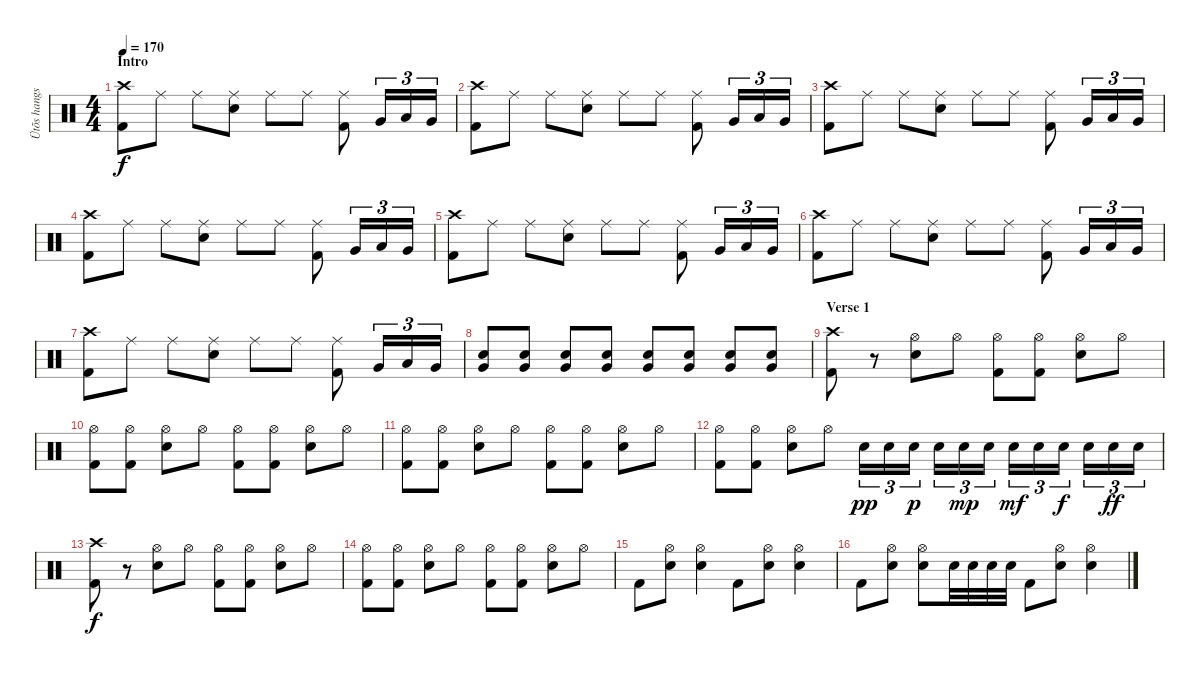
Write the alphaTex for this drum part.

\track ("Ütõs hangszer" "Ütõs hangs") {instrument percussion}
\staff {score}
\articulation defaults
\ts (4 4)
\section ("" "Intro")
\tempo 170
\clef neutral
\ks c
("Crash high (hit)" "Kick (hit) 2").8{dy f} "Ride (middle)".8 "Ride (middle)".8 ("Ride (middle)" "Electric Snare (hit)").8 "Ride (middle)".8 "Ride (middle)".8 ("Ride (middle)" "Kick (hit) 2").8 "Very Low Tom (hit)".16{tu (3 2)} "Low Tom (hit)".16{tu (3 2)} "Very Low Tom (hit)".16{tu (3 2)} |
("Crash high (hit)" "Kick (hit) 2").8 "Ride (middle)".8 "Ride (middle)".8 ("Ride (middle)" "Electric Snare (hit)").8 "Ride (middle)".8 "Ride (middle)".8 ("Ride (middle)" "Kick (hit) 2").8 "Very Low Tom (hit)".16{tu (3 2)} "Low Tom (hit)".16{tu (3 2)} "Very Low Tom (hit)".16{tu (3 2)} |
("Crash high (hit)" "Kick (hit) 2").8 "Ride (middle)".8 "Ride (middle)".8 ("Ride (middle)" "Electric Snare (hit)").8 "Ride (middle)".8 "Ride (middle)".8 ("Ride (middle)" "Kick (hit) 2").8 "Very Low Tom (hit)".16{tu (3 2)} "Low Tom (hit)".16{tu (3 2)} "Very Low Tom (hit)".16{tu (3 2)} |
("Crash high (hit)" "Kick (hit) 2").8 "Ride (middle)".8 "Ride (middle)".8 ("Ride (middle)" "Electric Snare (hit)").8 "Ride (middle)".8 "Ride (middle)".8 ("Ride (middle)" "Kick (hit) 2").8 "Very Low Tom (hit)".16{tu (3 2)} "Low Tom (hit)".16{tu (3 2)} "Very Low Tom (hit)".16{tu (3 2)} |
("Crash high (hit)" "Kick (hit) 2").8 "Ride (middle)".8 "Ride (middle)".8 ("Ride (middle)" "Electric Snare (hit)").8 "Ride (middle)".8 "Ride (middle)".8 ("Ride (middle)" "Kick (hit) 2").8 "Very Low Tom (hit)".16{tu (3 2)} "Low Tom (hit)".16{tu (3 2)} "Very Low Tom (hit)".16{tu (3 2)} |
("Crash high (hit)" "Kick (hit) 2").8 "Ride (middle)".8 "Ride (middle)".8 ("Ride (middle)" "Electric Snare (hit)").8 "Ride (middle)".8 "Ride (middle)".8 ("Ride (middle)" "Kick (hit) 2").8 "Very Low Tom (hit)".16{tu (3 2)} "Low Tom (hit)".16{tu (3 2)} "Very Low Tom (hit)".16{tu (3 2)} |
("Crash high (hit)" "Kick (hit) 2").8 "Ride (middle)".8 "Ride (middle)".8 ("Ride (middle)" "Electric Snare (hit)").8 "Ride (middle)".8 "Ride (middle)".8 ("Ride (middle)" "Kick (hit) 2").8 "Very Low Tom (hit)".16{tu (3 2)} "Low Tom (hit)".16{tu (3 2)} "Very Low Tom (hit)".16{tu (3 2)} |
("Very Low Tom (hit)" "Electric Snare (hit)").8 ("Very Low Tom (hit)" "Electric Snare (hit)").8 ("Very Low Tom (hit)" "Electric Snare (hit)").8 ("Very Low Tom (hit)" "Electric Snare (hit)").8 ("Very Low Tom (hit)" "Electric Snare (hit)").8 ("Very Low Tom (hit)" "Electric Snare (hit)").8 ("Very Low Tom (hit)" "Electric Snare (hit)").8 ("Very Low Tom (hit)" "Electric Snare (hit)").8 |
\section ("" "Verse 1")
("Crash high (hit)" "Kick (hit) 2").8 r.8 ("Hi-Hat (open)" "Electric Snare (hit)").8 "Hi-Hat (open)".8 ("Hi-Hat (open)" "Kick (hit) 2").8 ("Hi-Hat (open)" "Kick (hit) 2").8 ("Hi-Hat (open)" "Electric Snare (hit)").8 "Hi-Hat (open)".8 |
("Hi-Hat (open)" "Kick (hit) 2").8 ("Hi-Hat (open)" "Kick (hit) 2").8 ("Hi-Hat (open)" "Electric Snare (hit)").8 "Hi-Hat (open)".8 ("Hi-Hat (open)" "Kick (hit) 2").8 ("Hi-Hat (open)" "Kick (hit) 2").8 ("Hi-Hat (open)" "Electric Snare (hit)").8 "Hi-Hat (open)".8 |
("Hi-Hat (open)" "Kick (hit) 2").8 ("Hi-Hat (open)" "Kick (hit) 2").8 ("Hi-Hat (open)" "Electric Snare (hit)").8 "Hi-Hat (open)".8 ("Hi-Hat (open)" "Kick (hit) 2").8 ("Hi-Hat (open)" "Kick (hit) 2").8 ("Hi-Hat (open)" "Electric Snare (hit)").8 "Hi-Hat (open)".8 |
("Hi-Hat (open)" "Kick (hit) 2").8 ("Hi-Hat (open)" "Kick (hit) 2").8 ("Hi-Hat (open)" "Electric Snare (hit)").8 "Hi-Hat (open)".8 "Electric Snare (hit)".16{tu (3 2) dy pp} "Electric Snare (hit)".16{tu (3 2)} "Electric Snare (hit)".16{tu (3 2) dy p} "Electric Snare (hit)".16{tu (3 2)} "Electric Snare (hit)".16{tu (3 2) dy mp} "Electric Snare (hit)".16{tu (3 2)} "Electric Snare (hit)".16{tu (3 2) dy mf} "Electric Snare (hit)".16{tu (3 2)} "Electric Snare (hit)".16{tu (3 2) dy f} "Electric Snare (hit)".16{tu (3 2)} "Electric Snare (hit)".16{tu (3 2) dy ff} "Electric Snare (hit)".16{tu (3 2)} |
("Crash high (hit)" "Kick (hit) 2").8{dy f} r.8 ("Hi-Hat (open)" "Electric Snare (hit)").8 "Hi-Hat (open)".8 ("Hi-Hat (open)" "Kick (hit) 2").8 ("Hi-Hat (open)" "Kick (hit) 2").8 ("Hi-Hat (open)" "Electric Snare (hit)").8 "Hi-Hat (open)".8 |
("Hi-Hat (open)" "Kick (hit) 2").8 ("Hi-Hat (open)" "Kick (hit) 2").8 ("Hi-Hat (open)" "Electric Snare (hit)").8 "Hi-Hat (open)".8 ("Hi-Hat (open)" "Kick (hit) 2").8 ("Hi-Hat (open)" "Kick (hit) 2").8 ("Hi-Hat (open)" "Electric Snare (hit)").8 "Hi-Hat (open)".8 |
"Kick (hit) 2".8 ("Hi-Hat (open)" "Electric Snare (hit)").8 ("Hi-Hat (open)" "Electric Snare (hit)").4 "Kick (hit) 2".8 ("Hi-Hat (open)" "Electric Snare (hit)").8 ("Hi-Hat (open)" "Electric Snare (hit)").4 |
"Kick (hit) 2".8 ("Hi-Hat (open)" "Electric Snare (hit)").8 ("Hi-Hat (open)" "Electric Snare (hit)").8 "Electric Snare (hit)".32 "Electric Snare (hit)".32 "Electric Snare (hit)".32 "Electric Snare (hit)".32 "Kick (hit) 2".8 ("Hi-Hat (open)" "Electric Snare (hit)").8 ("Hi-Hat (open)" "Electric Snare (hit)").4
